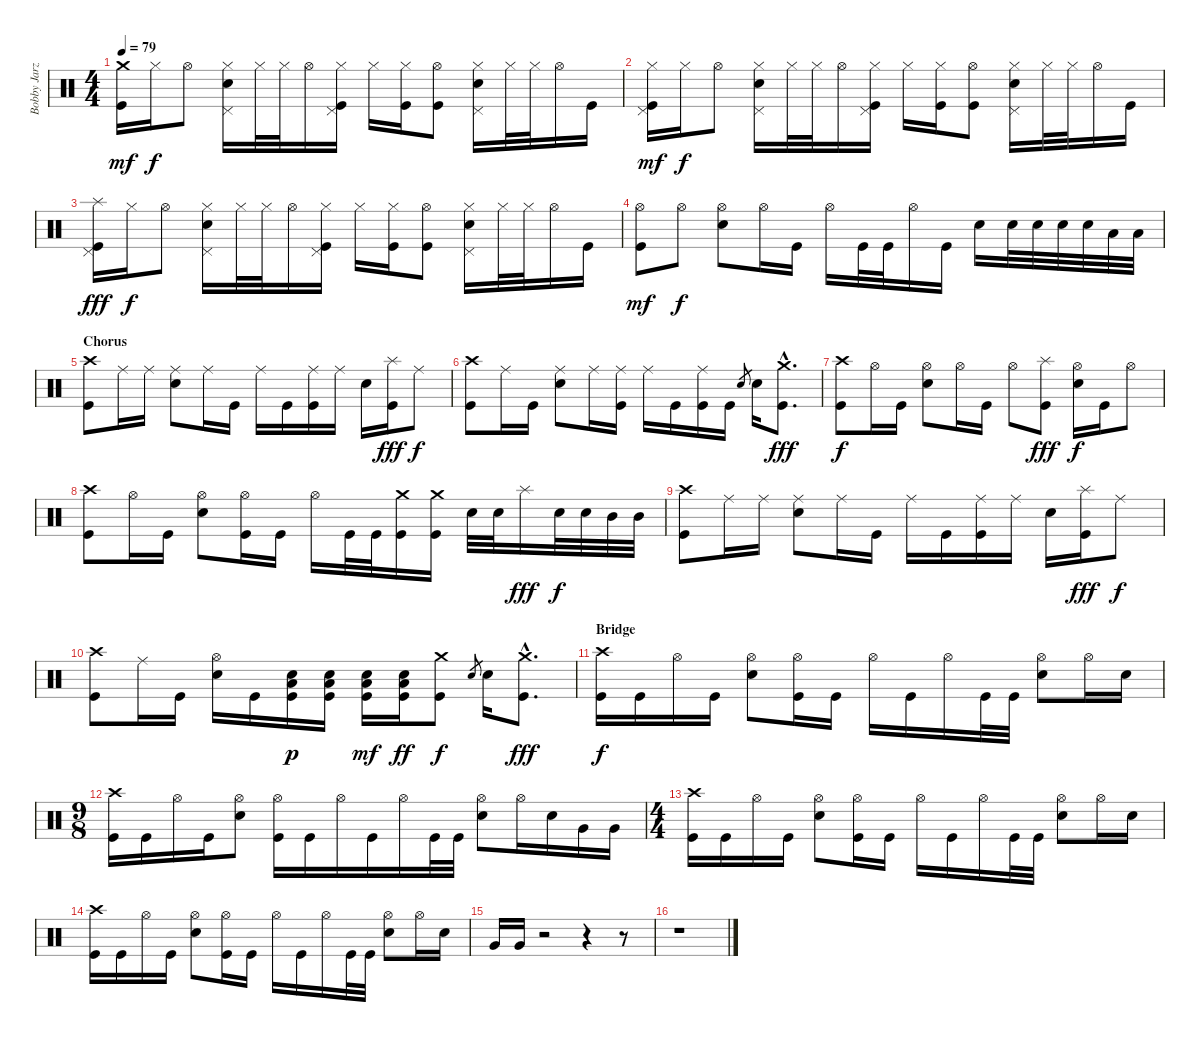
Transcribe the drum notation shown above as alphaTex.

\track ("Bobby Jarzombek" "Bobby Jarz") {instrument percussion}
\staff {score}
\articulation defaults
\ts (4 4)
\tempo 79
\clef neutral
\ks c
("Crash medium (hit)" "Kick (hit)").16{dy mf} "Hi-Hat (closed)".16{dy f} "Hi-Hat (open)".8 ("Hi-Hat (closed)" "Electric Snare (hit)" "Pedal Hi-Hat (hit)").16 "Hi-Hat (closed)".32 "Hi-Hat (closed)".32 "Hi-Hat (open)".16 ("Hi-Hat (closed)" "Pedal Hi-Hat (hit)" "Kick (hit)").16 "Hi-Hat (closed)".16 ("Hi-Hat (closed)" "Kick (hit)").16 ("Hi-Hat (open)" "Kick (hit)").8 ("Hi-Hat (closed)" "Electric Snare (hit)" "Pedal Hi-Hat (hit)").16 "Hi-Hat (closed)".32 "Hi-Hat (closed)".32 "Hi-Hat (open)".16 "Kick (hit)".16 |
("Hi-Hat (closed)" "Pedal Hi-Hat (hit)" "Kick (hit)").16{dy mf} "Hi-Hat (closed)".16{dy f} "Hi-Hat (open)".8 ("Hi-Hat (closed)" "Electric Snare (hit)" "Pedal Hi-Hat (hit)").16 "Hi-Hat (closed)".32 "Hi-Hat (closed)".32 "Hi-Hat (open)".16 ("Hi-Hat (closed)" "Pedal Hi-Hat (hit)" "Kick (hit)").16 "Hi-Hat (closed)".16 ("Hi-Hat (closed)" "Kick (hit)").16 ("Hi-Hat (open)" "Kick (hit)").8 ("Hi-Hat (closed)" "Electric Snare (hit)" "Pedal Hi-Hat (hit)").16 "Hi-Hat (closed)".32 "Hi-Hat (closed)".32 "Hi-Hat (open)".16 "Kick (hit)".16 |
("Splash (hit)" "Pedal Hi-Hat (hit)" "Kick (hit)").16{dy fff} "Hi-Hat (closed)".16{dy f} "Hi-Hat (open)".8 ("Hi-Hat (closed)" "Electric Snare (hit)" "Pedal Hi-Hat (hit)").16 "Hi-Hat (closed)".32 "Hi-Hat (closed)".32 "Hi-Hat (open)".16 ("Hi-Hat (closed)" "Pedal Hi-Hat (hit)" "Kick (hit)").16 "Hi-Hat (closed)".16 ("Hi-Hat (closed)" "Kick (hit)").16 ("Hi-Hat (open)" "Kick (hit)").8 ("Hi-Hat (closed)" "Electric Snare (hit)" "Pedal Hi-Hat (hit)").16 "Hi-Hat (closed)".32 "Hi-Hat (closed)".32 "Hi-Hat (open)".16 "Kick (hit)".16 |
("Hi-Hat (open)" "Kick (hit)").8{dy mf} "Hi-Hat (open)".8{dy f} ("Hi-Hat (open)" "Electric Snare (hit)").8 "Hi-Hat (open)".16 "Kick (hit)".16 "Hi-Hat (open)".16 "Kick (hit)".32 "Kick (hit)".32 "Hi-Hat (open)".16 "Kick (hit)".16 "Electric Snare (hit)".16 "Electric Snare (hit)".32 "Electric Snare (hit)".32 "Electric Snare (hit)".32 "Electric Snare (hit)".32 "Low Tom (hit)".32 "Low Tom (hit)".32 |
\section ("" "Chorus")
("Crash high (hit)" "Kick (hit)").8 "Ride (middle)".16 "Ride (middle)".16 ("Ride (middle)" "Electric Snare (hit)").8 "Ride (middle)".16 "Kick (hit)".16 "Ride (middle)".16 "Kick (hit)".16 ("Ride (middle)" "Kick (hit)").16 "Ride (middle)".16 "Electric Snare (hit)".16 ("Splash (hit)" "Kick (hit)").16{dy fff} "Ride (middle)".8{dy f} |
("Crash high (hit)" "Kick (hit)").8 "Ride (middle)".16 "Kick (hit)".16 ("Ride (middle)" "Electric Snare (hit)").8 "Ride (middle)".16 ("Ride (middle)" "Kick (hit)").16 "Ride (middle)".16 "Kick (hit)".16 ("Ride (middle)" "Kick (hit)").16 "Kick (hit)".16 "Electric Snare (hit)".8{gr} "Electric Snare (hit)".16 ("Crash medium (hit)"{hac} "Kick (hit)"{hac}).8{d dy fff} |
("Crash high (hit)" "Kick (hit)").8{dy f} "Hi-Hat (open)".16 "Kick (hit)".16 ("Hi-Hat (open)" "Electric Snare (hit)").8 "Hi-Hat (open)".16 "Kick (hit)".16 "Hi-Hat (open)".8 ("Splash (hit)" "Kick (hit)").8{dy fff} ("Hi-Hat (open)" "Electric Snare (hit)").16{dy f} "Kick (hit)".16 "Hi-Hat (open)".8 |
("Crash high (hit)" "Kick (hit)").8 "Hi-Hat (open)".16 "Kick (hit)".16 ("Hi-Hat (open)" "Electric Snare (hit)").8 ("Hi-Hat (open)" "Kick (hit)").16 "Kick (hit)".16 "Hi-Hat (open)".16 "Kick (hit)".32 "Kick (hit)".32 ("Crash medium (hit)" "Kick (hit)").16 ("Crash medium (hit)" "Kick (hit)").16 "Electric Snare (hit)".32 "Electric Snare (hit)".32 "Splash (hit)".16{dy fff} "Electric Snare (hit)".32{dy f} "Electric Snare (hit)".32 "Mid Tom (hit)".32 "Mid Tom (hit)".32 |
("Crash high (hit)" "Kick (hit)").8 "Ride (middle)".16 "Ride (middle)".16 ("Ride (middle)" "Electric Snare (hit)").8 "Ride (middle)".16 "Kick (hit)".16 "Ride (middle)".16 "Kick (hit)".16 ("Ride (middle)" "Kick (hit)").16 "Ride (middle)".16 "Electric Snare (hit)".16 ("Splash (hit)" "Kick (hit)").16{dy fff} "Ride (middle)".8{dy f} |
("Crash high (hit)" "Kick (hit)").8 "Ride (middle)".16 "Kick (hit)".16 ("Hi-Hat (open)" "Electric Snare (hit)").16 "Kick (hit)".16 ("Low Tom (hit)" "Electric Snare (hit)" "Kick (hit)").16{dy p} ("Low Tom (hit)" "Electric Snare (hit)" "Kick (hit)").16 ("Low Tom (hit)" "Electric Snare (hit)" "Kick (hit)").16{dy mf} ("Low Tom (hit)" "Electric Snare (hit)" "Kick (hit)").16{dy ff} ("Crash medium (hit)" "Kick (hit)").8{dy f} "Electric Snare (hit)".8{gr} "Electric Snare (hit)".16 ("Crash medium (hit)"{hac} "Kick (hit)"{hac}).8{d dy fff} |
\section ("" "Bridge")
("Crash high (hit)" "Kick (hit)").16{dy f} "Kick (hit)".16 "Hi-Hat (open)".16 "Kick (hit)".16 ("Hi-Hat (open)" "Electric Snare (hit)").8 ("Hi-Hat (open)" "Kick (hit)").16 "Kick (hit)".16 "Hi-Hat (open)".16 "Kick (hit)".16 "Hi-Hat (open)".16 "Kick (hit)".32 "Kick (hit)".32 ("Hi-Hat (open)" "Electric Snare (hit)").8 "Hi-Hat (open)".16 "Electric Snare (hit)".16 |
\ts (9 8)
("Crash high (hit)" "Kick (hit)").16 "Kick (hit)".16 "Hi-Hat (open)".16 "Kick (hit)".16 ("Hi-Hat (open)" "Electric Snare (hit)").8 ("Hi-Hat (open)" "Kick (hit)").16 "Kick (hit)".16 "Hi-Hat (open)".16 "Kick (hit)".16 "Hi-Hat (open)".16 "Kick (hit)".32 "Kick (hit)".32 ("Hi-Hat (open)" "Electric Snare (hit)").8 "Hi-Hat (open)".16 "Electric Snare (hit)".16 "Very Low Tom (hit)".16 "Very Low Tom (hit)".16 |
\ts (4 4)
("Crash high (hit)" "Kick (hit)").16 "Kick (hit)".16 "Hi-Hat (open)".16 "Kick (hit)".16 ("Hi-Hat (open)" "Electric Snare (hit)").8 ("Hi-Hat (open)" "Kick (hit)").16 "Kick (hit)".16 "Hi-Hat (open)".16 "Kick (hit)".16 "Hi-Hat (open)".16 "Kick (hit)".32 "Kick (hit)".32 ("Hi-Hat (open)" "Electric Snare (hit)").8 "Hi-Hat (open)".16 "Electric Snare (hit)".16 |
("Crash high (hit)" "Kick (hit)").16 "Kick (hit)".16 "Hi-Hat (open)".16 "Kick (hit)".16 ("Hi-Hat (open)" "Electric Snare (hit)").8 ("Hi-Hat (open)" "Kick (hit)").16 "Kick (hit)".16 "Hi-Hat (open)".16 "Kick (hit)".16 "Hi-Hat (open)".16 "Kick (hit)".32 "Kick (hit)".32 ("Hi-Hat (open)" "Electric Snare (hit)").8 "Hi-Hat (open)".16 "Electric Snare (hit)".16 |
"Very Low Tom (hit)".16 "Very Low Tom (hit)".16 r.2 r.4 r.8 |
r.1
